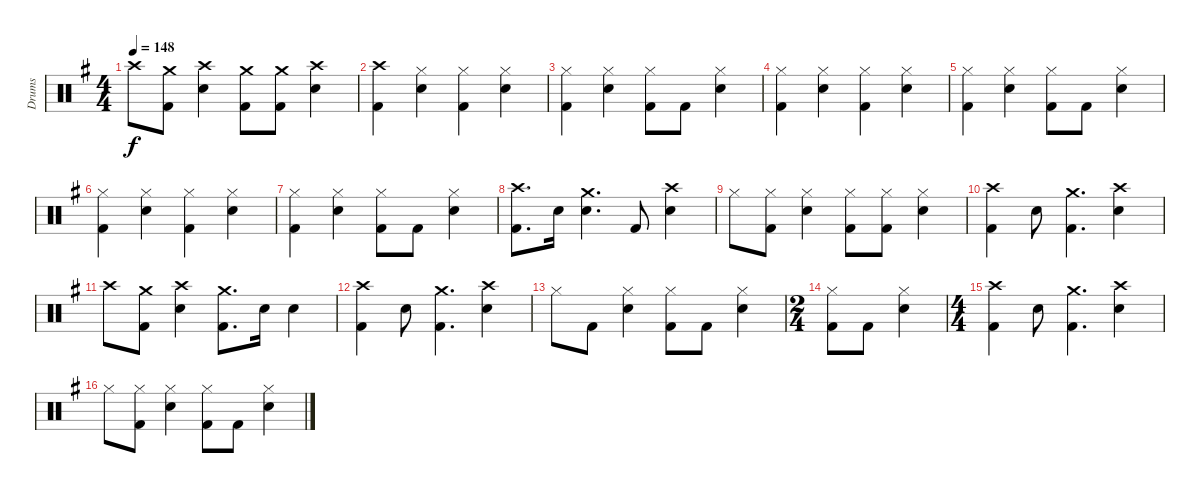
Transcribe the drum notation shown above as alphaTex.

\track ("Drums" "Drums") {instrument percussion}
\staff {score}
\articulation defaults
\ts (4 4)
\tempo 148
\clef neutral
\ks eminor "Crash high (hit)".8{dy f}
("Kick (hit) 2" "Crash medium (hit)").8 ("Snare (hit) 2" "Crash high (hit)").4 ("Kick (hit) 2" "Crash medium (hit)").8 ("Kick (hit) 2" "Crash medium (hit)").8 ("Snare (hit) 2" "Crash high (hit)").4 |
("Kick (hit) 2" "Crash high (hit)").4 ("Snare (hit) 2" "Hi-Hat (closed)").4 ("Kick (hit) 2" "Hi-Hat (closed)").4 ("Snare (hit) 2" "Hi-Hat (closed)").4 |
("Kick (hit) 2" "Hi-Hat (closed)").4 ("Snare (hit) 2" "Hi-Hat (closed)").4 ("Kick (hit) 2" "Hi-Hat (closed)").8 "Kick (hit) 2".8 ("Snare (hit) 2" "Hi-Hat (closed)").4 |
("Kick (hit) 2" "Hi-Hat (closed)").4 ("Snare (hit) 2" "Hi-Hat (closed)").4 ("Kick (hit) 2" "Hi-Hat (closed)").4 ("Snare (hit) 2" "Hi-Hat (closed)").4 |
("Kick (hit) 2" "Hi-Hat (closed)").4 ("Snare (hit) 2" "Hi-Hat (closed)").4 ("Kick (hit) 2" "Hi-Hat (closed)").8 "Kick (hit) 2".8 ("Snare (hit) 2" "Hi-Hat (closed)").4 |
("Kick (hit) 2" "Hi-Hat (closed)").4 ("Snare (hit) 2" "Hi-Hat (closed)").4 ("Kick (hit) 2" "Hi-Hat (closed)").4 ("Snare (hit) 2" "Hi-Hat (closed)").4 |
("Kick (hit) 2" "Hi-Hat (closed)").4 ("Snare (hit) 2" "Hi-Hat (closed)").4 ("Kick (hit) 2" "Hi-Hat (closed)").8 "Kick (hit) 2".8 ("Snare (hit) 2" "Hi-Hat (closed)").4 |
("Kick (hit) 2" "Crash high (hit)").8{d} "Snare (hit) 2".16 ("Snare (hit) 2" "Crash medium (hit)").4{d} "Kick (hit) 2".8 ("Snare (hit) 2" "Crash high (hit)").4 |
"Hi-Hat (closed)".8 ("Kick (hit) 2" "Hi-Hat (closed)").8 ("Snare (hit) 2" "Hi-Hat (closed)").4 ("Kick (hit) 2" "Hi-Hat (closed)").8 ("Kick (hit) 2" "Hi-Hat (closed)").8 ("Snare (hit) 2" "Hi-Hat (closed)").4 |
("Kick (hit) 2" "Crash high (hit)").4 "Snare (hit) 2".8 ("Kick (hit) 2" "Crash medium (hit)").4{d} ("Snare (hit) 2" "Crash high (hit)").4 |
"Crash high (hit)".8 ("Kick (hit) 2" "Crash medium (hit)").8 ("Snare (hit) 2" "Crash high (hit)").4 ("Kick (hit) 2" "Crash medium (hit)").8{d} "Snare (hit) 2".16 "Snare (hit) 2".4 |
("Kick (hit) 2" "Crash high (hit)").4 "Snare (hit) 2".8 ("Kick (hit) 2" "Crash medium (hit)").4{d} ("Snare (hit) 2" "Crash high (hit)").4 |
"Hi-Hat (closed)".8 "Kick (hit) 2".8 ("Snare (hit) 2" "Hi-Hat (closed)").4 ("Kick (hit) 2" "Hi-Hat (closed)").8 "Kick (hit) 2".8 ("Snare (hit) 2" "Hi-Hat (closed)").4 |
\ts (2 4)
("Kick (hit) 2" "Hi-Hat (closed)").8 "Kick (hit) 2".8 ("Snare (hit) 2" "Hi-Hat (closed)").4 |
\ts (4 4)
("Kick (hit) 2" "Crash high (hit)").4 "Snare (hit) 2".8 ("Kick (hit) 2" "Crash medium (hit)").4{d} ("Snare (hit) 2" "Crash high (hit)").4 |
"Hi-Hat (closed)".8 ("Kick (hit) 2" "Hi-Hat (closed)").8 ("Snare (hit) 2" "Hi-Hat (closed)").4 ("Kick (hit) 2" "Hi-Hat (closed)").8 "Kick (hit) 2".8 ("Snare (hit) 2" "Hi-Hat (closed)").4
